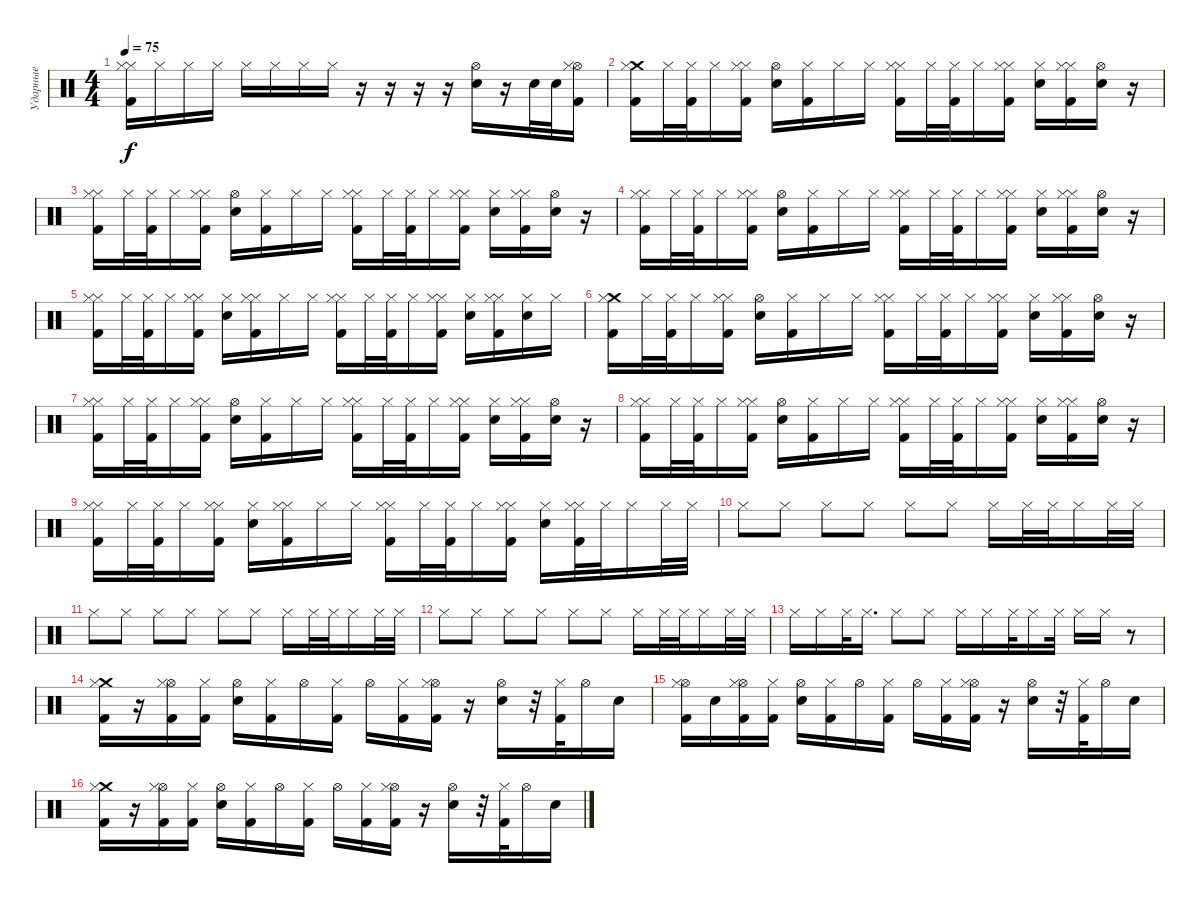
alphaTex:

\track ("Ударные" "Ударные") {instrument percussion}
\staff {score}
\articulation defaults
\ts (4 4)
\tempo 75
\clef neutral
\ks c
("Hi-Hat (closed)" "Hi-Hat (closed)" "Kick (hit) 2").16{dy f} "Hi-Hat (closed)".16 "Hi-Hat (closed)".16 "Hi-Hat (closed)".16 "Hi-Hat (closed)".16 "Hi-Hat (closed)".16 "Hi-Hat (closed)".16 "Hi-Hat (closed)".16 r.16 r.16 r.16 r.16 ("Hi-Hat (open)" "Electric Snare (hit)").16 r.16 "Electric Snare (hit)".32 "Electric Snare (hit)".32 ("Hi-Hat (open)" "Hi-Hat (closed)" "Kick (hit) 2").16 |
("Crash medium (hit)" "Hi-Hat (closed)" "Kick (hit) 2").16 "Hi-Hat (closed)".32 ("Hi-Hat (closed)" "Kick (hit) 2").32 "Hi-Hat (closed)".16 ("Hi-Hat (closed)" "Hi-Hat (closed)" "Kick (hit) 2").16 ("Hi-Hat (open)" "Electric Snare (hit)").16 ("Hi-Hat (closed)" "Kick (hit) 2").16 "Hi-Hat (closed)".16 "Hi-Hat (closed)".16 ("Hi-Hat (closed)" "Hi-Hat (closed)" "Kick (hit) 2").16 "Hi-Hat (closed)".32 ("Hi-Hat (closed)" "Kick (hit) 2").32 "Hi-Hat (closed)".16 ("Hi-Hat (closed)" "Hi-Hat (closed)" "Kick (hit) 2").16 ("Hi-Hat (closed)" "Electric Snare (hit)").16 ("Hi-Hat (closed)" "Hi-Hat (closed)" "Kick (hit) 2").16 ("Hi-Hat (open)" "Electric Snare (hit)").16 r.16 |
("Hi-Hat (closed)" "Hi-Hat (closed)" "Kick (hit) 2").16 "Hi-Hat (closed)".32 ("Hi-Hat (closed)" "Kick (hit) 2").32 "Hi-Hat (closed)".16 ("Hi-Hat (closed)" "Hi-Hat (closed)" "Kick (hit) 2").16 ("Hi-Hat (open)" "Electric Snare (hit)").16 ("Hi-Hat (closed)" "Kick (hit) 2").16 "Hi-Hat (closed)".16 "Hi-Hat (closed)".16 ("Hi-Hat (closed)" "Hi-Hat (closed)" "Kick (hit) 2").16 "Hi-Hat (closed)".32 ("Hi-Hat (closed)" "Kick (hit) 2").32 "Hi-Hat (closed)".16 ("Hi-Hat (closed)" "Hi-Hat (closed)" "Kick (hit) 2").16 ("Hi-Hat (closed)" "Electric Snare (hit)").16 ("Hi-Hat (closed)" "Hi-Hat (closed)" "Kick (hit) 2").16 ("Hi-Hat (open)" "Electric Snare (hit)").16 r.16 |
("Hi-Hat (closed)" "Hi-Hat (closed)" "Kick (hit) 2").16 "Hi-Hat (closed)".32 ("Hi-Hat (closed)" "Kick (hit) 2").32 "Hi-Hat (closed)".16 ("Hi-Hat (closed)" "Hi-Hat (closed)" "Kick (hit) 2").16 ("Hi-Hat (open)" "Electric Snare (hit)").16 ("Hi-Hat (closed)" "Kick (hit) 2").16 "Hi-Hat (closed)".16 "Hi-Hat (closed)".16 ("Hi-Hat (closed)" "Hi-Hat (closed)" "Kick (hit) 2").16 "Hi-Hat (closed)".32 ("Hi-Hat (closed)" "Kick (hit) 2").32 "Hi-Hat (closed)".16 ("Hi-Hat (closed)" "Hi-Hat (closed)" "Kick (hit) 2").16 ("Hi-Hat (closed)" "Electric Snare (hit)").16 ("Hi-Hat (closed)" "Hi-Hat (closed)" "Kick (hit) 2").16 ("Hi-Hat (open)" "Electric Snare (hit)").16 r.16 |
("Hi-Hat (closed)" "Hi-Hat (closed)" "Kick (hit) 2").16 "Hi-Hat (closed)".32 ("Hi-Hat (closed)" "Kick (hit) 2").32 "Hi-Hat (closed)".16 ("Hi-Hat (closed)" "Hi-Hat (closed)" "Kick (hit) 2").16 ("Hi-Hat (closed)" "Electric Snare (hit)").16 ("Hi-Hat (closed)" "Hi-Hat (closed)" "Kick (hit) 2").16 "Hi-Hat (closed)".16 "Hi-Hat (closed)".16 ("Hi-Hat (closed)" "Hi-Hat (closed)" "Kick (hit) 2").16 "Hi-Hat (closed)".32 ("Hi-Hat (closed)" "Kick (hit) 2").32 "Hi-Hat (closed)".16 ("Hi-Hat (closed)" "Hi-Hat (closed)" "Kick (hit) 2").16 ("Hi-Hat (closed)" "Electric Snare (hit)").16 ("Hi-Hat (closed)" "Hi-Hat (closed)" "Kick (hit) 2").16 ("Hi-Hat (closed)" "Electric Snare (hit)").16 "Hi-Hat (closed)".16 |
("Crash medium (hit)" "Hi-Hat (closed)" "Kick (hit) 2").16 "Hi-Hat (closed)".32 ("Hi-Hat (closed)" "Kick (hit) 2").32 "Hi-Hat (closed)".16 ("Hi-Hat (closed)" "Hi-Hat (closed)" "Kick (hit) 2").16 ("Hi-Hat (open)" "Electric Snare (hit)").16 ("Hi-Hat (closed)" "Kick (hit) 2").16 "Hi-Hat (closed)".16 "Hi-Hat (closed)".16 ("Hi-Hat (closed)" "Hi-Hat (closed)" "Kick (hit) 2").16 "Hi-Hat (closed)".32 ("Hi-Hat (closed)" "Kick (hit) 2").32 "Hi-Hat (closed)".16 ("Hi-Hat (closed)" "Hi-Hat (closed)" "Kick (hit) 2").16 ("Hi-Hat (closed)" "Electric Snare (hit)").16 ("Hi-Hat (closed)" "Hi-Hat (closed)" "Kick (hit) 2").16 ("Hi-Hat (open)" "Electric Snare (hit)").16 r.16 |
("Hi-Hat (closed)" "Hi-Hat (closed)" "Kick (hit) 2").16 "Hi-Hat (closed)".32 ("Hi-Hat (closed)" "Kick (hit) 2").32 "Hi-Hat (closed)".16 ("Hi-Hat (closed)" "Hi-Hat (closed)" "Kick (hit) 2").16 ("Hi-Hat (open)" "Electric Snare (hit)").16 ("Hi-Hat (closed)" "Kick (hit) 2").16 "Hi-Hat (closed)".16 "Hi-Hat (closed)".16 ("Hi-Hat (closed)" "Hi-Hat (closed)" "Kick (hit) 2").16 "Hi-Hat (closed)".32 ("Hi-Hat (closed)" "Kick (hit) 2").32 "Hi-Hat (closed)".16 ("Hi-Hat (closed)" "Hi-Hat (closed)" "Kick (hit) 2").16 ("Hi-Hat (closed)" "Electric Snare (hit)").16 ("Hi-Hat (closed)" "Hi-Hat (closed)" "Kick (hit) 2").16 ("Hi-Hat (open)" "Electric Snare (hit)").16 r.16 |
("Hi-Hat (closed)" "Hi-Hat (closed)" "Kick (hit) 2").16 "Hi-Hat (closed)".32 ("Hi-Hat (closed)" "Kick (hit) 2").32 "Hi-Hat (closed)".16 ("Hi-Hat (closed)" "Hi-Hat (closed)" "Kick (hit) 2").16 ("Hi-Hat (open)" "Electric Snare (hit)").16 ("Hi-Hat (closed)" "Kick (hit) 2").16 "Hi-Hat (closed)".16 "Hi-Hat (closed)".16 ("Hi-Hat (closed)" "Hi-Hat (closed)" "Kick (hit) 2").16 "Hi-Hat (closed)".32 ("Hi-Hat (closed)" "Kick (hit) 2").32 "Hi-Hat (closed)".16 ("Hi-Hat (closed)" "Hi-Hat (closed)" "Kick (hit) 2").16 ("Hi-Hat (closed)" "Electric Snare (hit)").16 ("Hi-Hat (closed)" "Hi-Hat (closed)" "Kick (hit) 2").16 ("Hi-Hat (open)" "Electric Snare (hit)").16 r.16 |
("Hi-Hat (closed)" "Hi-Hat (closed)" "Kick (hit) 2").16 "Hi-Hat (closed)".32 ("Hi-Hat (closed)" "Kick (hit) 2").32 "Hi-Hat (closed)".16 ("Hi-Hat (closed)" "Hi-Hat (closed)" "Kick (hit) 2").16 ("Hi-Hat (closed)" "Electric Snare (hit)").16 ("Hi-Hat (closed)" "Hi-Hat (closed)" "Kick (hit) 2").16 "Hi-Hat (closed)".16 "Hi-Hat (closed)".16 ("Hi-Hat (closed)" "Hi-Hat (closed)" "Kick (hit) 2").16 "Hi-Hat (closed)".32 ("Hi-Hat (closed)" "Kick (hit) 2").32 "Hi-Hat (closed)".16 ("Hi-Hat (closed)" "Hi-Hat (closed)" "Kick (hit) 2").16 ("Hi-Hat (closed)" "Electric Snare (hit)").16 ("Hi-Hat (closed)" "Hi-Hat (closed)" "Kick (hit) 2").32 "Hi-Hat (closed)".32 "Hi-Hat (closed)".16 "Hi-Hat (closed)".32 "Hi-Hat (closed)".32 |
"Hi-Hat (closed)".8 "Hi-Hat (closed)".8 "Hi-Hat (closed)".8 "Hi-Hat (closed)".8 "Hi-Hat (closed)".8 "Hi-Hat (closed)".8 "Hi-Hat (closed)".16 "Hi-Hat (closed)".32 "Hi-Hat (closed)".32 "Hi-Hat (closed)".16 "Hi-Hat (closed)".32 "Hi-Hat (closed)".32 |
"Hi-Hat (closed)".8 "Hi-Hat (closed)".8 "Hi-Hat (closed)".8 "Hi-Hat (closed)".8 "Hi-Hat (closed)".8 "Hi-Hat (closed)".8 "Hi-Hat (closed)".16 "Hi-Hat (closed)".32 "Hi-Hat (closed)".32 "Hi-Hat (closed)".16 "Hi-Hat (closed)".32 "Hi-Hat (closed)".32 |
"Hi-Hat (closed)".8 "Hi-Hat (closed)".8 "Hi-Hat (closed)".8 "Hi-Hat (closed)".8 "Hi-Hat (closed)".8 "Hi-Hat (closed)".8 "Hi-Hat (closed)".16 "Hi-Hat (closed)".32 "Hi-Hat (closed)".32 "Hi-Hat (closed)".16 "Hi-Hat (closed)".32 "Hi-Hat (closed)".32 |
"Hi-Hat (closed)".16 "Hi-Hat (closed)".16 "Hi-Hat (closed)".32 "Hi-Hat (closed)".16{d} "Hi-Hat (closed)".8 "Hi-Hat (closed)".8 "Hi-Hat (closed)".16 "Hi-Hat (closed)".16 "Hi-Hat (closed)".32 "Hi-Hat (closed)".16 "Hi-Hat (closed)".32 "Hi-Hat (closed)".16 "Hi-Hat (closed)".16 r.8 |
("Crash medium (hit)" "Hi-Hat (closed)" "Kick (hit) 2").16 r.16 ("Hi-Hat (open)" "Hi-Hat (closed)" "Kick (hit) 2").16 ("Hi-Hat (closed)" "Kick (hit) 2").16 ("Hi-Hat (open)" "Electric Snare (hit)").16 ("Hi-Hat (closed)" "Kick (hit) 2").16 "Hi-Hat (open)".16 ("Hi-Hat (closed)" "Kick (hit) 2").16 "Hi-Hat (open)".16 ("Hi-Hat (closed)" "Kick (hit) 2").16 ("Hi-Hat (open)" "Hi-Hat (closed)" "Kick (hit) 2").16 r.16 ("Hi-Hat (open)" "Electric Snare (hit)").16 r.32 ("Hi-Hat (closed)" "Kick (hit) 2").32 "Hi-Hat (open)".16 "Electric Snare (hit)".16 |
("Hi-Hat (open)" "Hi-Hat (closed)" "Kick (hit) 2").16 "Electric Snare (hit)".16 ("Hi-Hat (open)" "Hi-Hat (closed)" "Kick (hit) 2").16 ("Hi-Hat (closed)" "Kick (hit) 2").16 ("Hi-Hat (open)" "Electric Snare (hit)").16 ("Hi-Hat (closed)" "Kick (hit) 2").16 "Hi-Hat (open)".16 ("Hi-Hat (closed)" "Kick (hit) 2").16 "Hi-Hat (open)".16 ("Hi-Hat (closed)" "Kick (hit) 2").16 ("Hi-Hat (open)" "Hi-Hat (closed)" "Kick (hit) 2").16 r.16 ("Hi-Hat (open)" "Electric Snare (hit)").16 r.32 ("Hi-Hat (closed)" "Kick (hit) 2").32 "Hi-Hat (open)".16 "Electric Snare (hit)".16 |
("Crash medium (hit)" "Hi-Hat (closed)" "Kick (hit) 2").16 r.16 ("Hi-Hat (open)" "Hi-Hat (closed)" "Kick (hit) 2").16 ("Hi-Hat (closed)" "Kick (hit) 2").16 ("Hi-Hat (open)" "Electric Snare (hit)").16 ("Hi-Hat (closed)" "Kick (hit) 2").16 "Hi-Hat (open)".16 ("Hi-Hat (closed)" "Kick (hit) 2").16 "Hi-Hat (open)".16 ("Hi-Hat (closed)" "Kick (hit) 2").16 ("Hi-Hat (open)" "Hi-Hat (closed)" "Kick (hit) 2").16 r.16 ("Hi-Hat (open)" "Electric Snare (hit)").16 r.32 ("Hi-Hat (closed)" "Kick (hit) 2").32 "Hi-Hat (open)".16 "Electric Snare (hit)".16
